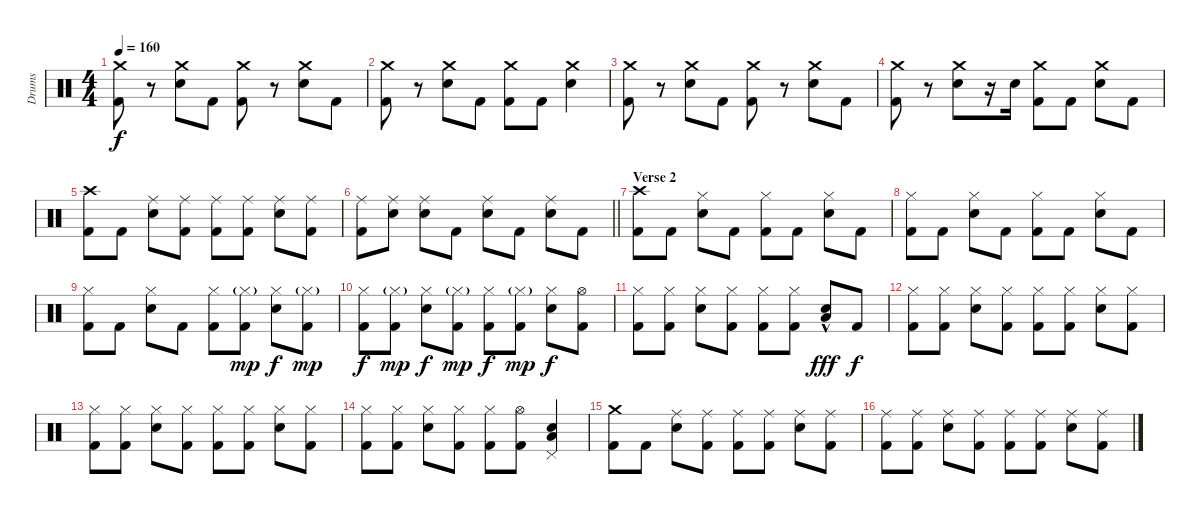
\track ("Drums" "Drums") {instrument percussion}
\staff {score}
\articulation defaults
\ts (4 4)
\tempo 160
\clef neutral
\ks c
("Crash medium (hit)" "Kick (hit) 2").8{dy f} r.8 ("Crash medium (hit)" "Electric Snare (hit)").8 "Kick (hit) 2".8 ("Crash medium (hit)" "Kick (hit) 2").8 r.8 ("Crash medium (hit)" "Electric Snare (hit)").8 "Kick (hit) 2".8 |
("Crash medium (hit)" "Kick (hit) 2").8 r.8 ("Crash medium (hit)" "Electric Snare (hit)").8 "Kick (hit) 2".8 ("Crash medium (hit)" "Kick (hit) 2").8 "Kick (hit) 2".8 ("Crash medium (hit)" "Electric Snare (hit)").4 |
("Crash medium (hit)" "Kick (hit) 2").8 r.8 ("Crash medium (hit)" "Electric Snare (hit)").8 "Kick (hit) 2".8 ("Crash medium (hit)" "Kick (hit) 2").8 r.8 ("Crash medium (hit)" "Electric Snare (hit)").8 "Kick (hit) 2".8 |
("Crash medium (hit)" "Kick (hit) 2").8 r.8 ("Crash medium (hit)" "Electric Snare (hit)").8 r.16 "Electric Snare (hit)".16 ("Crash medium (hit)" "Kick (hit) 2").8 "Kick (hit) 2".8 ("Crash medium (hit)" "Electric Snare (hit)").8 "Kick (hit) 2".8 |
("Crash high (hit)" "Kick (hit) 2").8 "Kick (hit) 2".8 ("Ride (middle)" "Electric Snare (hit)").8 ("Ride (middle)" "Kick (hit) 2").8 ("Ride (middle)" "Kick (hit) 2").8 ("Ride (middle)" "Kick (hit) 2").8 ("Ride (middle)" "Electric Snare (hit)").8 ("Ride (middle)" "Kick (hit) 2").8 |
\barLineRight lightlight
("Ride (middle)" "Kick (hit) 2").8 ("Ride (middle)" "Electric Snare (hit)").8 ("Ride (middle)" "Electric Snare (hit)").8 "Kick (hit) 2".8 ("Ride (middle)" "Electric Snare (hit)").8 "Kick (hit) 2".8 ("Ride (middle)" "Electric Snare (hit)").8 "Kick (hit) 2".8 |
\section ("" "Verse 2")
("Crash high (hit)" "Kick (hit) 2").8 "Kick (hit) 2".8 ("Hi-Hat (closed)" "Electric Snare (hit)").8 "Kick (hit) 2".8 ("Hi-Hat (closed)" "Kick (hit) 2").8 "Kick (hit) 2".8 ("Hi-Hat (closed)" "Electric Snare (hit)").8 "Kick (hit) 2".8 |
("Hi-Hat (closed)" "Kick (hit) 2").8 "Kick (hit) 2".8 ("Hi-Hat (closed)" "Electric Snare (hit)").8 "Kick (hit) 2".8 ("Hi-Hat (closed)" "Kick (hit) 2").8 "Kick (hit) 2".8 ("Hi-Hat (closed)" "Electric Snare (hit)").8 "Kick (hit) 2".8 |
("Hi-Hat (closed)" "Kick (hit) 2").8 "Kick (hit) 2".8 ("Hi-Hat (closed)" "Electric Snare (hit)").8 "Kick (hit) 2".8 ("Hi-Hat (closed)" "Kick (hit) 2").8 ("Hi-Hat (closed)"{g} "Kick (hit) 2").8{dy mp} ("Hi-Hat (closed)" "Electric Snare (hit)").8{dy f} ("Hi-Hat (closed)"{g} "Kick (hit) 2").8{dy mp} |
("Hi-Hat (closed)" "Kick (hit) 2").8{dy f} ("Hi-Hat (closed)"{g} "Kick (hit) 2").8{dy mp} ("Hi-Hat (closed)" "Electric Snare (hit)").8{dy f} ("Hi-Hat (closed)"{g} "Kick (hit) 2").8{dy mp} ("Hi-Hat (closed)" "Kick (hit) 2").8{dy f} ("Hi-Hat (closed)"{g} "Kick (hit) 2").8{dy mp} ("Hi-Hat (closed)" "Electric Snare (hit)").8{dy f} ("Hi-Hat (open)" "Kick (hit) 2").8 |
("Hi-Hat (closed)" "Kick (hit) 2").8 ("Hi-Hat (closed)" "Kick (hit) 2").8 ("Hi-Hat (closed)" "Electric Snare (hit)").8 ("Hi-Hat (closed)" "Kick (hit) 2").8 ("Hi-Hat (closed)" "Kick (hit) 2").8 ("Hi-Hat (closed)" "Kick (hit) 2").8 ("Low Floor Tom (hit)"{hac} "Electric Snare (hit)").8{dy fff} "Kick (hit) 2".8{dy f} |
("Hi-Hat (closed)" "Kick (hit) 2").8 ("Hi-Hat (closed)" "Kick (hit) 2").8 ("Hi-Hat (closed)" "Electric Snare (hit)").8 ("Hi-Hat (closed)" "Kick (hit) 2").8 ("Hi-Hat (closed)" "Kick (hit) 2").8 ("Hi-Hat (closed)" "Kick (hit) 2").8 ("Hi-Hat (closed)" "Electric Snare (hit)").8 ("Hi-Hat (closed)" "Kick (hit) 2").8 |
("Hi-Hat (closed)" "Kick (hit) 2").8 ("Hi-Hat (closed)" "Kick (hit) 2").8 ("Hi-Hat (closed)" "Electric Snare (hit)").8 ("Hi-Hat (closed)" "Kick (hit) 2").8 ("Hi-Hat (closed)" "Kick (hit) 2").8 ("Hi-Hat (closed)" "Kick (hit) 2").8 ("Hi-Hat (closed)" "Electric Snare (hit)").8 ("Hi-Hat (closed)" "Kick (hit) 2").8 |
("Hi-Hat (closed)" "Kick (hit) 2").8 ("Hi-Hat (closed)" "Kick (hit) 2").8 ("Hi-Hat (closed)" "Electric Snare (hit)").8 ("Hi-Hat (closed)" "Kick (hit) 2").8 ("Hi-Hat (closed)" "Kick (hit) 2").8 ("Hi-Hat (open)" "Kick (hit) 2").8 ("Pedal Hi-Hat (hit)" "Low Floor Tom (hit)" "Electric Snare (hit)").4 |
("Crash medium (hit)" "Kick (hit) 2").8 "Kick (hit) 2".8 ("Ride (middle)" "Electric Snare (hit)").8 ("Ride (middle)" "Kick (hit) 2").8 ("Ride (middle)" "Kick (hit) 2").8 ("Ride (middle)" "Kick (hit) 2").8 ("Ride (middle)" "Electric Snare (hit)").8 ("Ride (middle)" "Kick (hit) 2").8 |
("Ride (middle)" "Kick (hit) 2").8 ("Ride (middle)" "Kick (hit) 2").8 ("Ride (middle)" "Electric Snare (hit)").8 ("Ride (middle)" "Kick (hit) 2").8 ("Ride (middle)" "Kick (hit) 2").8 ("Ride (middle)" "Kick (hit) 2").8 ("Ride (middle)" "Electric Snare (hit)").8 ("Ride (middle)" "Kick (hit) 2").8
